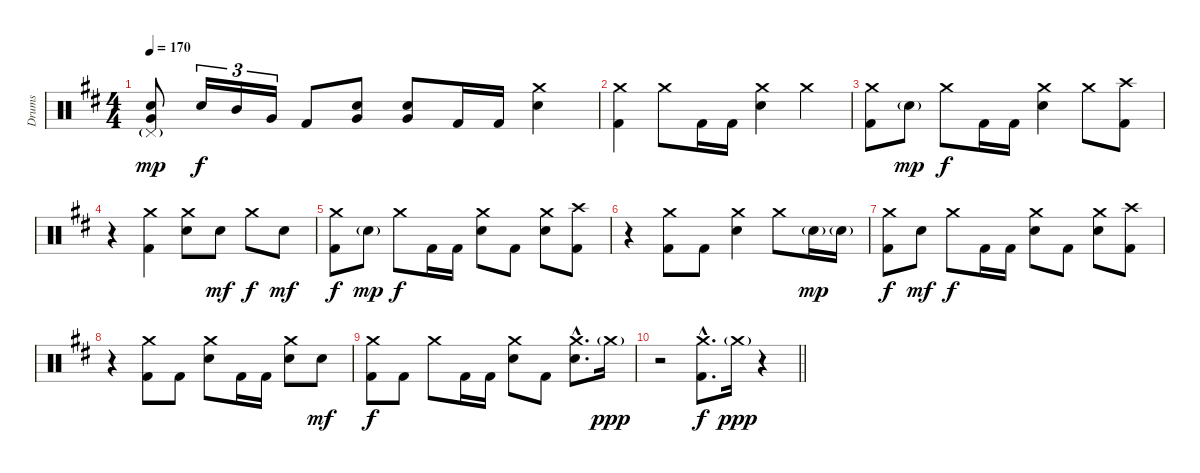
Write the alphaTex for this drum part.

\track ("Drums" "Drums") {instrument percussion}
\staff {score}
\articulation defaults
\ts (4 4)
\tempo 170
\clef neutral
\ks d
("Pedal Hi-Hat (hit)"{g} "Electric Snare (hit)" "Very Low Tom (hit)").8{dy mp} "Electric Snare (hit)".16{tu (3 2) dy f} "Mid Tom (hit)".16{tu (3 2)} "Very Low Tom (hit)".16{tu (3 2)} "Kick (hit) 2".8 ("Electric Snare (hit)" "Very Low Tom (hit)").8 ("Electric Snare (hit)" "Very Low Tom (hit)").8 "Kick (hit) 2".16 "Kick (hit) 2".16 ("Crash medium (hit)" "Electric Snare (hit)").4 |
("Crash medium (hit)" "Kick (hit) 2").4 "Crash medium (hit)".8 "Kick (hit) 2".16 "Kick (hit) 2".16 ("Crash medium (hit)" "Electric Snare (hit)").4 "Crash medium (hit)".4 |
("Crash medium (hit)" "Kick (hit) 2").8 "Electric Snare (hit)"{g}.8{dy mp} "Crash medium (hit)".8{dy f} "Kick (hit) 2".16 "Kick (hit) 2".16 ("Crash medium (hit)" "Electric Snare (hit)").4 "Crash medium (hit)".8 ("Crash high (hit)" "Kick (hit) 2").8 |
r.4 ("Crash medium (hit)" "Kick (hit) 2").4 ("Crash medium (hit)" "Electric Snare (hit)").8 "Electric Snare (hit)".8{dy mf} "Crash medium (hit)".8{dy f} "Electric Snare (hit)".8{dy mf} |
("Crash medium (hit)" "Kick (hit) 2").8{dy f} "Electric Snare (hit)"{g}.8{dy mp} "Crash medium (hit)".8{dy f} "Kick (hit) 2".16 "Kick (hit) 2".16 ("Crash medium (hit)" "Electric Snare (hit)").8 "Kick (hit) 2".8 ("Crash medium (hit)" "Electric Snare (hit)").8 ("Crash high (hit)" "Kick (hit) 2").8 |
r.4 ("Crash medium (hit)" "Kick (hit) 2").8 "Kick (hit) 2".8 ("Crash medium (hit)" "Electric Snare (hit)").4 "Crash medium (hit)".8 "Electric Snare (hit)"{g}.16{dy mp} "Electric Snare (hit)"{g}.16 |
("Crash medium (hit)" "Kick (hit) 2").8{dy f} "Electric Snare (hit)".8{dy mf} "Crash medium (hit)".8{dy f} "Kick (hit) 2".16 "Kick (hit) 2".16 ("Crash medium (hit)" "Electric Snare (hit)").8 "Kick (hit) 2".8 ("Crash medium (hit)" "Electric Snare (hit)").8 ("Crash high (hit)" "Kick (hit) 2").8 |
r.4 ("Crash medium (hit)" "Kick (hit) 2").8 "Kick (hit) 2".8 ("Crash medium (hit)" "Electric Snare (hit)").8 "Kick (hit) 2".16 "Kick (hit) 2".16 ("Crash medium (hit)" "Electric Snare (hit)").8 "Electric Snare (hit)".8{dy mf} |
("Crash medium (hit)" "Kick (hit) 2").8{dy f} "Kick (hit) 2".8 "Crash medium (hit)".8 "Kick (hit) 2".16 "Kick (hit) 2".16 ("Crash medium (hit)" "Electric Snare (hit)").8 "Kick (hit) 2".8 ("Crash medium (hit)"{hac} "Electric Snare (hit)"{hac}).8{d} "Crash medium (hit)"{g}.16{dy ppp} |
\barLineRight lightlight
r.2 ("Crash medium (hit)"{hac} "Kick (hit) 2"{hac}).8{d dy f} "Crash medium (hit)"{g}.16{dy ppp} r.4
